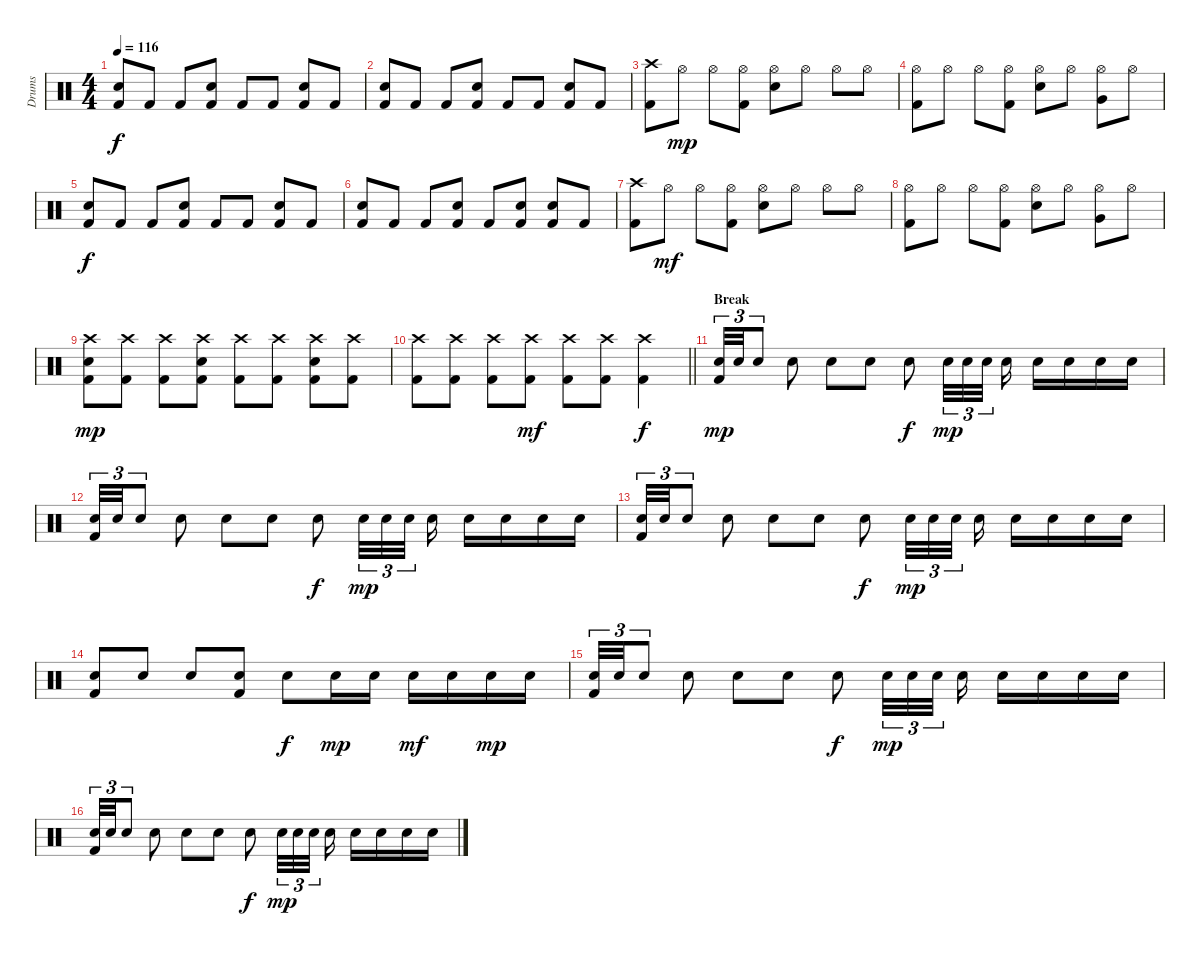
\track ("Drums" "Drums") {instrument percussion}
\staff {score}
\articulation defaults
\ts (4 4)
\tempo 116
\clef neutral
\ks c
("Kick (hit) 2" "Snare (hit) 2").8{dy f} "Kick (hit) 2".8 "Kick (hit) 2".8 ("Kick (hit) 2" "Snare (hit) 2").8 "Kick (hit) 2".8 "Kick (hit) 2".8 ("Kick (hit) 2" "Snare (hit) 2").8 "Kick (hit) 2".8 |
("Kick (hit) 2" "Snare (hit) 2").8 "Kick (hit) 2".8 "Kick (hit) 2".8 ("Kick (hit) 2" "Snare (hit) 2").8 "Kick (hit) 2".8 "Kick (hit) 2".8 ("Kick (hit) 2" "Snare (hit) 2").8 "Kick (hit) 2".8 |
("Kick (hit) 2" "Crash high (hit)").8 "Hi-Hat (open)".8{dy mp} "Hi-Hat (open)".8 ("Kick (hit) 2" "Hi-Hat (open)").8 ("Snare (hit) 2" "Hi-Hat (open)").8 "Hi-Hat (open)".8 "Hi-Hat (open)".8 "Hi-Hat (open)".8 |
("Kick (hit) 2" "Hi-Hat (open)").8 "Hi-Hat (open)".8 "Hi-Hat (open)".8 ("Kick (hit) 2" "Hi-Hat (open)").8 ("Snare (hit) 2" "Hi-Hat (open)").8 "Hi-Hat (open)".8 ("Hi-Hat (open)" "Very Low Tom (hit)").8 "Hi-Hat (open)".8 |
("Kick (hit) 2" "Snare (hit) 2").8{dy f} "Kick (hit) 2".8 "Kick (hit) 2".8 ("Kick (hit) 2" "Snare (hit) 2").8 "Kick (hit) 2".8 "Kick (hit) 2".8 ("Kick (hit) 2" "Snare (hit) 2").8 "Kick (hit) 2".8 |
("Kick (hit) 2" "Snare (hit) 2").8 "Kick (hit) 2".8 "Kick (hit) 2".8 ("Kick (hit) 2" "Snare (hit) 2").8 "Kick (hit) 2".8 ("Kick (hit) 2" "Snare (hit) 2").8 ("Kick (hit) 2" "Snare (hit) 2").8 "Kick (hit) 2".8 |
("Kick (hit) 2" "Crash high (hit)").8 "Hi-Hat (open)".8{dy mf} "Hi-Hat (open)".8 ("Kick (hit) 2" "Hi-Hat (open)").8 ("Snare (hit) 2" "Hi-Hat (open)").8 "Hi-Hat (open)".8 "Hi-Hat (open)".8 "Hi-Hat (open)".8 |
("Kick (hit) 2" "Hi-Hat (open)").8 "Hi-Hat (open)".8 "Hi-Hat (open)".8 ("Kick (hit) 2" "Hi-Hat (open)").8 ("Snare (hit) 2" "Hi-Hat (open)").8 "Hi-Hat (open)".8 ("Hi-Hat (open)" "Very Low Tom (hit)").8 "Hi-Hat (open)".8 |
("Kick (hit) 2" "Snare (hit) 2" "Crash high (hit)").8{dy mp} ("Kick (hit) 2" "Crash high (hit)").8 ("Kick (hit) 2" "Crash high (hit)").8 ("Kick (hit) 2" "Snare (hit) 2" "Crash high (hit)").8 ("Kick (hit) 2" "Crash high (hit)").8 ("Kick (hit) 2" "Crash high (hit)").8 ("Kick (hit) 2" "Snare (hit) 2" "Crash high (hit)").8 ("Kick (hit) 2" "Crash high (hit)").8 |
\barLineRight lightlight
("Kick (hit) 2" "Crash high (hit)").8 ("Kick (hit) 2" "Crash high (hit)").8 ("Kick (hit) 2" "Crash high (hit)").8 ("Kick (hit) 2" "Crash high (hit)").8{dy mf} ("Kick (hit) 2" "Crash high (hit)").8 ("Kick (hit) 2" "Crash high (hit)").8 ("Kick (hit) 2" "Crash high (hit)").4{dy f} |
\section ("" "Break")
("Kick (hit) 2" "Snare (hit) 2").32{tu (3 2) dy mp} "Snare (hit) 2".32{tu (3 2)} "Snare (hit) 2".8{tu (3 2)} "Snare (hit) 2".8 "Snare (hit) 2".8 "Snare (hit) 2".8 "Snare (hit) 2".8{dy f} "Snare (hit) 2".32{tu (3 2) dy mp} "Snare (hit) 2".32{tu (3 2)} "Snare (hit) 2".32{tu (3 2)} "Snare (hit) 2".16 "Snare (hit) 2".16 "Snare (hit) 2".16 "Snare (hit) 2".16 "Snare (hit) 2".16 |
("Kick (hit) 2" "Snare (hit) 2").32{tu (3 2)} "Snare (hit) 2".32{tu (3 2)} "Snare (hit) 2".8{tu (3 2)} "Snare (hit) 2".8 "Snare (hit) 2".8 "Snare (hit) 2".8 "Snare (hit) 2".8{dy f} "Snare (hit) 2".32{tu (3 2) dy mp} "Snare (hit) 2".32{tu (3 2)} "Snare (hit) 2".32{tu (3 2)} "Snare (hit) 2".16 "Snare (hit) 2".16 "Snare (hit) 2".16 "Snare (hit) 2".16 "Snare (hit) 2".16 |
("Kick (hit) 2" "Snare (hit) 2").32{tu (3 2)} "Snare (hit) 2".32{tu (3 2)} "Snare (hit) 2".8{tu (3 2)} "Snare (hit) 2".8 "Snare (hit) 2".8 "Snare (hit) 2".8 "Snare (hit) 2".8{dy f} "Snare (hit) 2".32{tu (3 2) dy mp} "Snare (hit) 2".32{tu (3 2)} "Snare (hit) 2".32{tu (3 2)} "Snare (hit) 2".16 "Snare (hit) 2".16 "Snare (hit) 2".16 "Snare (hit) 2".16 "Snare (hit) 2".16 |
("Kick (hit) 2" "Snare (hit) 2").8 "Snare (hit) 2".8 "Snare (hit) 2".8 ("Kick (hit) 2" "Snare (hit) 2").8 "Snare (hit) 2".8{dy f} "Snare (hit) 2".16{dy mp} "Snare (hit) 2".16 "Snare (hit) 2".16{dy mf} "Snare (hit) 2".16 "Snare (hit) 2".16{dy mp} "Snare (hit) 2".16 |
("Kick (hit) 2" "Snare (hit) 2").32{tu (3 2)} "Snare (hit) 2".32{tu (3 2)} "Snare (hit) 2".8{tu (3 2)} "Snare (hit) 2".8 "Snare (hit) 2".8 "Snare (hit) 2".8 "Snare (hit) 2".8{dy f} "Snare (hit) 2".32{tu (3 2) dy mp} "Snare (hit) 2".32{tu (3 2)} "Snare (hit) 2".32{tu (3 2)} "Snare (hit) 2".16 "Snare (hit) 2".16 "Snare (hit) 2".16 "Snare (hit) 2".16 "Snare (hit) 2".16 |
("Kick (hit) 2" "Snare (hit) 2").32{tu (3 2)} "Snare (hit) 2".32{tu (3 2)} "Snare (hit) 2".8{tu (3 2)} "Snare (hit) 2".8 "Snare (hit) 2".8 "Snare (hit) 2".8 "Snare (hit) 2".8{dy f} "Snare (hit) 2".32{tu (3 2) dy mp} "Snare (hit) 2".32{tu (3 2)} "Snare (hit) 2".32{tu (3 2)} "Snare (hit) 2".16 "Snare (hit) 2".16 "Snare (hit) 2".16 "Snare (hit) 2".16 "Snare (hit) 2".16
